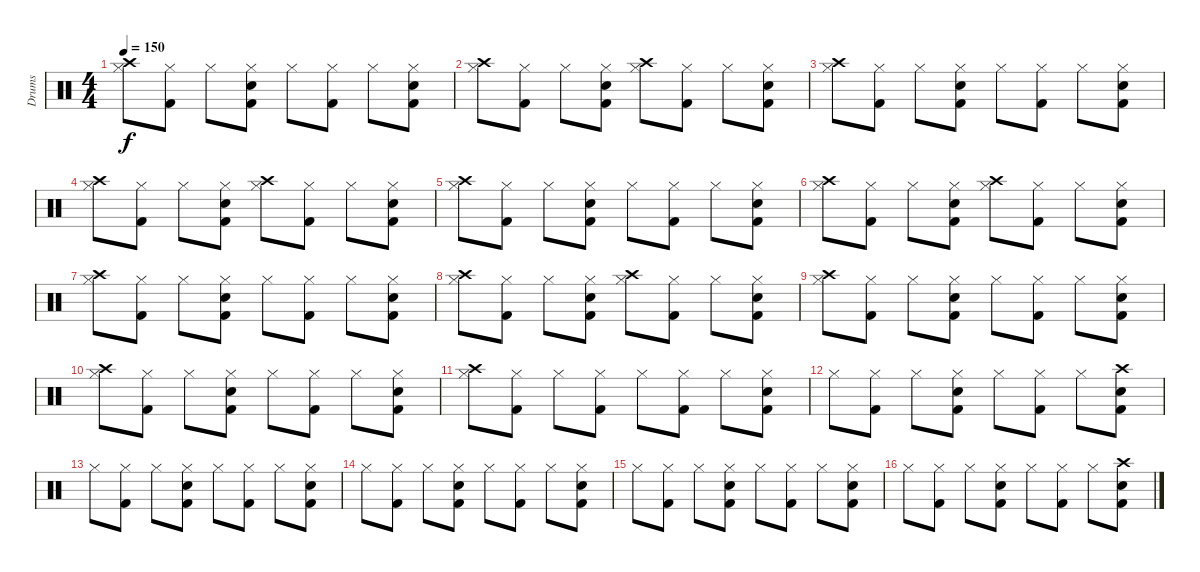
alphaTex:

\track ("Drums" "Drums") {instrument percussion}
\staff {score}
\articulation defaults
\ts (4 4)
\tempo 150
\clef neutral
\ks c
("Crash high (hit)" "Hi-Hat (closed)").8{dy f} ("Kick (hit) 2" "Hi-Hat (closed)").8 "Hi-Hat (closed)".8 ("Electric Snare (hit)" "Kick (hit) 2" "Hi-Hat (closed)").8 "Hi-Hat (closed)".8 ("Kick (hit) 2" "Hi-Hat (closed)").8 "Hi-Hat (closed)".8 ("Electric Snare (hit)" "Kick (hit) 2" "Hi-Hat (closed)").8 |
("Crash high (hit)" "Hi-Hat (closed)").8 ("Kick (hit) 2" "Hi-Hat (closed)").8 "Hi-Hat (closed)".8 ("Electric Snare (hit)" "Kick (hit) 2" "Hi-Hat (closed)").8 ("Crash high (hit)" "Hi-Hat (closed)").8 ("Kick (hit) 2" "Hi-Hat (closed)").8 "Hi-Hat (closed)".8 ("Electric Snare (hit)" "Kick (hit) 2" "Hi-Hat (closed)").8 |
("Crash high (hit)" "Hi-Hat (closed)").8 ("Kick (hit) 2" "Hi-Hat (closed)").8 "Hi-Hat (closed)".8 ("Electric Snare (hit)" "Kick (hit) 2" "Hi-Hat (closed)").8 "Hi-Hat (closed)".8 ("Kick (hit) 2" "Hi-Hat (closed)").8 "Hi-Hat (closed)".8 ("Electric Snare (hit)" "Kick (hit) 2" "Hi-Hat (closed)").8 |
("Crash high (hit)" "Hi-Hat (closed)").8 ("Kick (hit) 2" "Hi-Hat (closed)").8 "Hi-Hat (closed)".8 ("Electric Snare (hit)" "Kick (hit) 2" "Hi-Hat (closed)").8 ("Crash high (hit)" "Hi-Hat (closed)").8 ("Kick (hit) 2" "Hi-Hat (closed)").8 "Hi-Hat (closed)".8 ("Electric Snare (hit)" "Kick (hit) 2" "Hi-Hat (closed)").8 |
("Crash high (hit)" "Hi-Hat (closed)").8 ("Kick (hit) 2" "Hi-Hat (closed)").8 "Hi-Hat (closed)".8 ("Electric Snare (hit)" "Kick (hit) 2" "Hi-Hat (closed)").8 "Hi-Hat (closed)".8 ("Kick (hit) 2" "Hi-Hat (closed)").8 "Hi-Hat (closed)".8 ("Electric Snare (hit)" "Kick (hit) 2" "Hi-Hat (closed)").8 |
("Crash high (hit)" "Hi-Hat (closed)").8 ("Kick (hit) 2" "Hi-Hat (closed)").8 "Hi-Hat (closed)".8 ("Electric Snare (hit)" "Kick (hit) 2" "Hi-Hat (closed)").8 ("Crash high (hit)" "Hi-Hat (closed)").8 ("Kick (hit) 2" "Hi-Hat (closed)").8 "Hi-Hat (closed)".8 ("Electric Snare (hit)" "Kick (hit) 2" "Hi-Hat (closed)").8 |
("Crash high (hit)" "Hi-Hat (closed)").8 ("Kick (hit) 2" "Hi-Hat (closed)").8 "Hi-Hat (closed)".8 ("Electric Snare (hit)" "Kick (hit) 2" "Hi-Hat (closed)").8 "Hi-Hat (closed)".8 ("Kick (hit) 2" "Hi-Hat (closed)").8 "Hi-Hat (closed)".8 ("Electric Snare (hit)" "Kick (hit) 2" "Hi-Hat (closed)").8 |
("Crash high (hit)" "Hi-Hat (closed)").8 ("Kick (hit) 2" "Hi-Hat (closed)").8 "Hi-Hat (closed)".8 ("Electric Snare (hit)" "Kick (hit) 2" "Hi-Hat (closed)").8 ("Crash high (hit)" "Hi-Hat (closed)").8 ("Kick (hit) 2" "Hi-Hat (closed)").8 "Hi-Hat (closed)".8 ("Electric Snare (hit)" "Kick (hit) 2" "Hi-Hat (closed)").8 |
("Crash high (hit)" "Hi-Hat (closed)").8 ("Kick (hit) 2" "Hi-Hat (closed)").8 "Hi-Hat (closed)".8 ("Electric Snare (hit)" "Kick (hit) 2" "Hi-Hat (closed)").8 "Hi-Hat (closed)".8 ("Kick (hit) 2" "Hi-Hat (closed)").8 "Hi-Hat (closed)".8 ("Electric Snare (hit)" "Kick (hit) 2" "Hi-Hat (closed)").8 |
("Crash high (hit)" "Hi-Hat (closed)").8 ("Kick (hit) 2" "Hi-Hat (closed)").8 "Hi-Hat (closed)".8 ("Electric Snare (hit)" "Kick (hit) 2" "Hi-Hat (closed)").8 "Hi-Hat (closed)".8 ("Kick (hit) 2" "Hi-Hat (closed)").8 "Hi-Hat (closed)".8 ("Electric Snare (hit)" "Kick (hit) 2" "Hi-Hat (closed)").8 |
("Crash high (hit)" "Hi-Hat (closed)").8 ("Kick (hit) 2" "Hi-Hat (closed)").8 "Hi-Hat (closed)".8 ("Kick (hit) 2" "Hi-Hat (closed)").8 "Hi-Hat (closed)".8 ("Kick (hit) 2" "Hi-Hat (closed)").8 "Hi-Hat (closed)".8 ("Electric Snare (hit)" "Kick (hit) 2" "Hi-Hat (closed)").8 |
"Hi-Hat (closed)".8 ("Kick (hit) 2" "Hi-Hat (closed)").8 "Hi-Hat (closed)".8 ("Electric Snare (hit)" "Kick (hit) 2" "Hi-Hat (closed)").8 "Hi-Hat (closed)".8 ("Kick (hit) 2" "Hi-Hat (closed)").8 "Hi-Hat (closed)".8 ("Electric Snare (hit)" "Kick (hit) 2" "Crash high (hit)").8 |
"Hi-Hat (closed)".8 ("Kick (hit) 2" "Hi-Hat (closed)").8 "Hi-Hat (closed)".8 ("Electric Snare (hit)" "Kick (hit) 2" "Hi-Hat (closed)").8 "Hi-Hat (closed)".8 ("Kick (hit) 2" "Hi-Hat (closed)").8 "Hi-Hat (closed)".8 ("Electric Snare (hit)" "Kick (hit) 2" "Hi-Hat (closed)").8 |
"Hi-Hat (closed)".8 ("Kick (hit) 2" "Hi-Hat (closed)").8 "Hi-Hat (closed)".8 ("Electric Snare (hit)" "Kick (hit) 2" "Hi-Hat (closed)").8 "Hi-Hat (closed)".8 ("Kick (hit) 2" "Hi-Hat (closed)").8 "Hi-Hat (closed)".8 ("Electric Snare (hit)" "Kick (hit) 2" "Hi-Hat (closed)").8 |
"Hi-Hat (closed)".8 ("Kick (hit) 2" "Hi-Hat (closed)").8 "Hi-Hat (closed)".8 ("Electric Snare (hit)" "Kick (hit) 2" "Hi-Hat (closed)").8 "Hi-Hat (closed)".8 ("Kick (hit) 2" "Hi-Hat (closed)").8 "Hi-Hat (closed)".8 ("Electric Snare (hit)" "Kick (hit) 2" "Hi-Hat (closed)").8 |
"Hi-Hat (closed)".8 ("Kick (hit) 2" "Hi-Hat (closed)").8 "Hi-Hat (closed)".8 ("Electric Snare (hit)" "Kick (hit) 2" "Hi-Hat (closed)").8 "Hi-Hat (closed)".8 ("Kick (hit) 2" "Hi-Hat (closed)").8 "Hi-Hat (closed)".8 ("Electric Snare (hit)" "Kick (hit) 2" "Crash high (hit)").8
